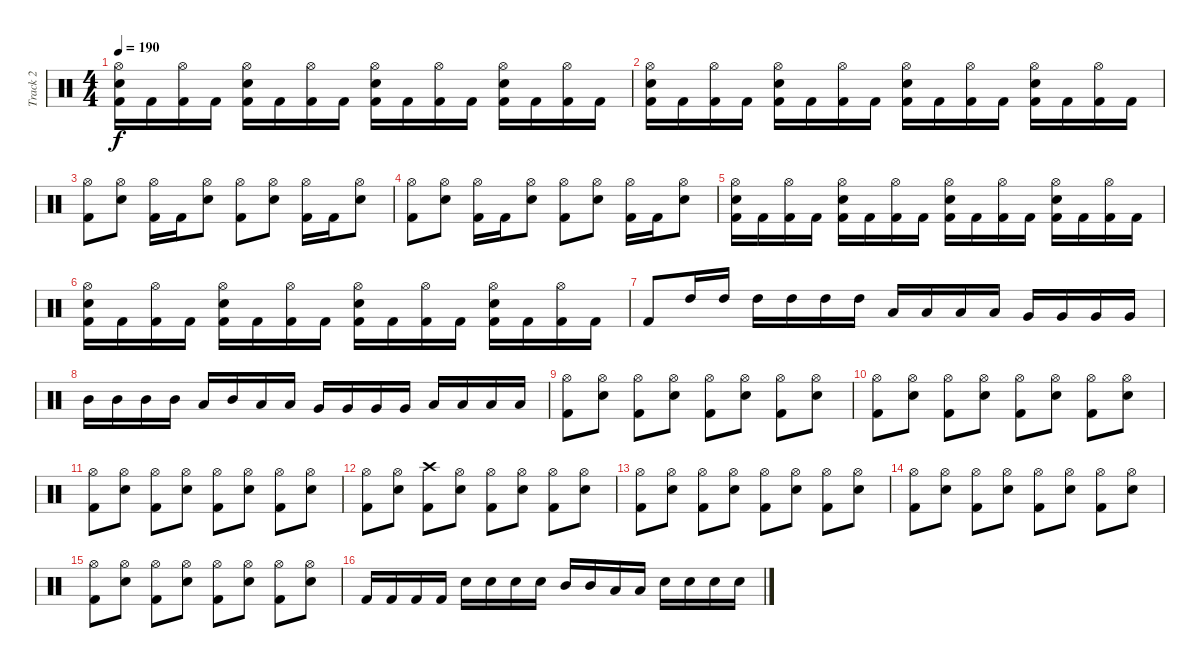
\track ("Track 2" "Track 2") {instrument percussion}
\staff {score}
\articulation defaults
\ts (4 4)
\tempo 190
\clef neutral
\ks c
("Hi-Hat (open)" "Snare (hit) 2" "Kick (hit) 2").16{dy f} "Kick (hit) 2".16 ("Hi-Hat (open)" "Kick (hit) 2").16 "Kick (hit) 2".16 ("Hi-Hat (open)" "Snare (hit) 2" "Kick (hit) 2").16 "Kick (hit) 2".16 ("Hi-Hat (open)" "Kick (hit) 2").16 "Kick (hit) 2".16 ("Hi-Hat (open)" "Snare (hit) 2" "Kick (hit) 2").16 "Kick (hit) 2".16 ("Hi-Hat (open)" "Kick (hit) 2").16 "Kick (hit) 2".16 ("Hi-Hat (open)" "Snare (hit) 2" "Kick (hit) 2").16 "Kick (hit) 2".16 ("Hi-Hat (open)" "Kick (hit) 2").16 "Kick (hit) 2".16 |
("Hi-Hat (open)" "Snare (hit) 2" "Kick (hit) 2").16 "Kick (hit) 2".16 ("Hi-Hat (open)" "Kick (hit) 2").16 "Kick (hit) 2".16 ("Hi-Hat (open)" "Snare (hit) 2" "Kick (hit) 2").16 "Kick (hit) 2".16 ("Hi-Hat (open)" "Kick (hit) 2").16 "Kick (hit) 2".16 ("Hi-Hat (open)" "Snare (hit) 2" "Kick (hit) 2").16 "Kick (hit) 2".16 ("Hi-Hat (open)" "Kick (hit) 2").16 "Kick (hit) 2".16 ("Hi-Hat (open)" "Snare (hit) 2" "Kick (hit) 2").16 "Kick (hit) 2".16 ("Hi-Hat (open)" "Kick (hit) 2").16 "Kick (hit) 2".16 |
("Hi-Hat (open)" "Kick (hit) 2").8 ("Hi-Hat (open)" "Snare (hit) 2").8 ("Hi-Hat (open)" "Kick (hit) 2").16 "Kick (hit) 2".16 ("Hi-Hat (open)" "Snare (hit) 2").8 ("Hi-Hat (open)" "Kick (hit) 2").8 ("Hi-Hat (open)" "Snare (hit) 2").8 ("Hi-Hat (open)" "Kick (hit) 2").16 "Kick (hit) 2".16 ("Hi-Hat (open)" "Snare (hit) 2").8 |
("Hi-Hat (open)" "Kick (hit) 2").8 ("Hi-Hat (open)" "Snare (hit) 2").8 ("Hi-Hat (open)" "Kick (hit) 2").16 "Kick (hit) 2".16 ("Hi-Hat (open)" "Snare (hit) 2").8 ("Hi-Hat (open)" "Kick (hit) 2").8 ("Hi-Hat (open)" "Snare (hit) 2").8 ("Hi-Hat (open)" "Kick (hit) 2").16 "Kick (hit) 2".16 ("Hi-Hat (open)" "Snare (hit) 2").8 |
("Hi-Hat (open)" "Snare (hit) 2" "Kick (hit) 2").16 "Kick (hit) 2".16 ("Hi-Hat (open)" "Kick (hit) 2").16 "Kick (hit) 2".16 ("Hi-Hat (open)" "Snare (hit) 2" "Kick (hit) 2").16 "Kick (hit) 2".16 ("Hi-Hat (open)" "Kick (hit) 2").16 "Kick (hit) 2".16 ("Hi-Hat (open)" "Snare (hit) 2" "Kick (hit) 2").16 "Kick (hit) 2".16 ("Hi-Hat (open)" "Kick (hit) 2").16 "Kick (hit) 2".16 ("Hi-Hat (open)" "Snare (hit) 2" "Kick (hit) 2").16 "Kick (hit) 2".16 ("Hi-Hat (open)" "Kick (hit) 2").16 "Kick (hit) 2".16 |
("Hi-Hat (open)" "Snare (hit) 2" "Kick (hit) 2").16 "Kick (hit) 2".16 ("Hi-Hat (open)" "Kick (hit) 2").16 "Kick (hit) 2".16 ("Hi-Hat (open)" "Snare (hit) 2" "Kick (hit) 2").16 "Kick (hit) 2".16 ("Hi-Hat (open)" "Kick (hit) 2").16 "Kick (hit) 2".16 ("Hi-Hat (open)" "Snare (hit) 2" "Kick (hit) 2").16 "Kick (hit) 2".16 ("Hi-Hat (open)" "Kick (hit) 2").16 "Kick (hit) 2".16 ("Hi-Hat (open)" "Snare (hit) 2" "Kick (hit) 2").16 "Kick (hit) 2".16 ("Hi-Hat (open)" "Kick (hit) 2").16 "Kick (hit) 2".16 |
"Kick (hit) 2".8 "High Tom (hit)".16 "High Tom (hit)".16 "High Tom (hit)".16 "High Tom (hit)".16 "High Tom (hit)".16 "High Tom (hit)".16 "Low Tom (hit)".16 "Low Tom (hit)".16 "Low Tom (hit)".16 "Low Tom (hit)".16 "Very Low Tom (hit)".16 "Very Low Tom (hit)".16 "Very Low Tom (hit)".16 "Very Low Tom (hit)".16 |
"Mid Tom (hit)".16 "Mid Tom (hit)".16 "Mid Tom (hit)".16 "Mid Tom (hit)".16 "Low Tom (hit)".16 "Mid Tom (hit)".16 "Low Tom (hit)".16 "Low Tom (hit)".16 "Very Low Tom (hit)".16 "Very Low Tom (hit)".16 "Very Low Tom (hit)".16 "Very Low Tom (hit)".16 "Low Floor Tom (hit)".16 "Low Floor Tom (hit)".16 "Low Floor Tom (hit)".16 "Low Floor Tom (hit)".16 |
("Hi-Hat (open)" "Kick (hit) 2").8 ("Hi-Hat (open)" "Snare (hit) 2").8 ("Hi-Hat (open)" "Kick (hit) 2").8 ("Hi-Hat (open)" "Snare (hit) 2").8 ("Hi-Hat (open)" "Kick (hit) 2").8 ("Hi-Hat (open)" "Snare (hit) 2").8 ("Hi-Hat (open)" "Kick (hit) 2").8 ("Hi-Hat (open)" "Snare (hit) 2").8 |
("Hi-Hat (open)" "Kick (hit) 2").8 ("Hi-Hat (open)" "Snare (hit) 2").8 ("Hi-Hat (open)" "Kick (hit) 2").8 ("Hi-Hat (open)" "Snare (hit) 2").8 ("Hi-Hat (open)" "Kick (hit) 2").8 ("Hi-Hat (open)" "Snare (hit) 2").8 ("Hi-Hat (open)" "Kick (hit) 2").8 ("Hi-Hat (open)" "Snare (hit) 2").8 |
("Hi-Hat (open)" "Kick (hit) 2").8 ("Hi-Hat (open)" "Snare (hit) 2").8 ("Hi-Hat (open)" "Kick (hit) 2").8 ("Hi-Hat (open)" "Snare (hit) 2").8 ("Hi-Hat (open)" "Kick (hit) 2").8 ("Hi-Hat (open)" "Snare (hit) 2").8 ("Hi-Hat (open)" "Kick (hit) 2").8 ("Hi-Hat (open)" "Snare (hit) 2").8 |
("Hi-Hat (open)" "Kick (hit) 2").8 ("Hi-Hat (open)" "Snare (hit) 2").8 ("Crash high (hit)" "Kick (hit) 2").8 ("Hi-Hat (open)" "Snare (hit) 2").8 ("Hi-Hat (open)" "Kick (hit) 2").8 ("Hi-Hat (open)" "Snare (hit) 2").8 ("Hi-Hat (open)" "Kick (hit) 2").8 ("Hi-Hat (open)" "Snare (hit) 2").8 |
("Hi-Hat (open)" "Kick (hit) 2").8 ("Hi-Hat (open)" "Snare (hit) 2").8 ("Hi-Hat (open)" "Kick (hit) 2").8 ("Hi-Hat (open)" "Snare (hit) 2").8 ("Hi-Hat (open)" "Kick (hit) 2").8 ("Hi-Hat (open)" "Snare (hit) 2").8 ("Hi-Hat (open)" "Kick (hit) 2").8 ("Hi-Hat (open)" "Snare (hit) 2").8 |
("Hi-Hat (open)" "Kick (hit) 2").8 ("Hi-Hat (open)" "Snare (hit) 2").8 ("Hi-Hat (open)" "Kick (hit) 2").8 ("Hi-Hat (open)" "Snare (hit) 2").8 ("Hi-Hat (open)" "Kick (hit) 2").8 ("Hi-Hat (open)" "Snare (hit) 2").8 ("Hi-Hat (open)" "Kick (hit) 2").8 ("Hi-Hat (open)" "Snare (hit) 2").8 |
("Hi-Hat (open)" "Kick (hit) 2").8 ("Hi-Hat (open)" "Snare (hit) 2").8 ("Hi-Hat (open)" "Kick (hit) 2").8 ("Hi-Hat (open)" "Snare (hit) 2").8 ("Hi-Hat (open)" "Kick (hit) 2").8 ("Hi-Hat (open)" "Snare (hit) 2").8 ("Hi-Hat (open)" "Kick (hit) 2").8 ("Hi-Hat (open)" "Snare (hit) 2").8 |
"Kick (hit) 2".16 "Kick (hit) 2".16 "Kick (hit) 2".16 "Kick (hit) 2".16 "Snare (hit) 2".16 "Snare (hit) 2".16 "Snare (hit) 2".16 "Snare (hit) 2".16 "Mid Tom (hit)".16 "Mid Tom (hit)".16 "Low Tom (hit)".16 "Low Tom (hit)".16 "Snare (hit) 2".16 "Snare (hit) 2".16 "Snare (hit) 2".16 "Snare (hit) 2".16
